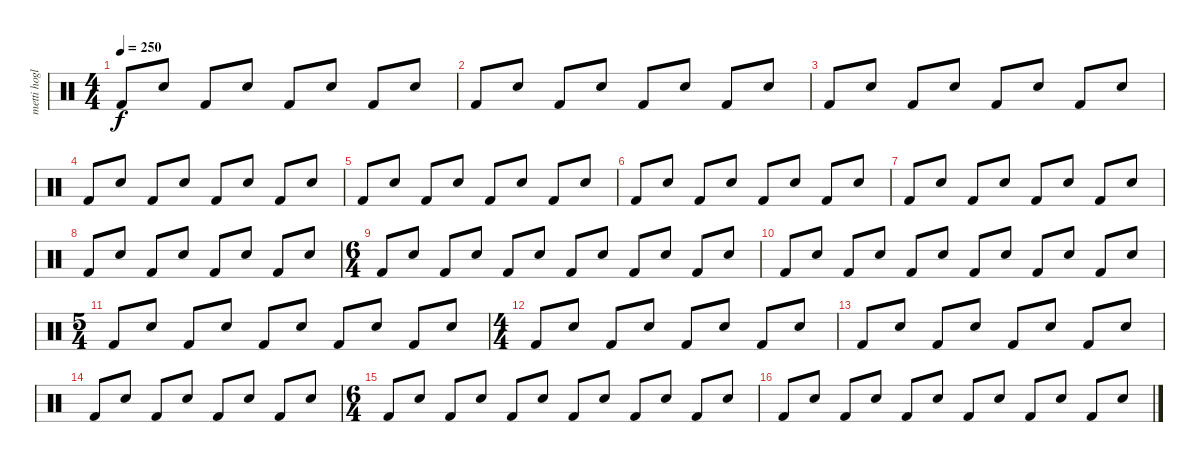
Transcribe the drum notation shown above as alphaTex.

\track ("metti hoglan" "metti hogl") {instrument percussion}
\staff {score}
\articulation defaults
\ts (4 4)
\tempo 250
\clef neutral
\ks c "Kick (hit) 2".8{dy f} "Snare (hit) 2".8 "Kick (hit) 2".8 "Snare (hit) 2".8 "Kick (hit) 2".8 "Snare (hit) 2".8 "Kick (hit) 2".8 "Snare (hit) 2".8
|
"Kick (hit) 2".8 "Snare (hit) 2".8 "Kick (hit) 2".8 "Snare (hit) 2".8 "Kick (hit) 2".8 "Snare (hit) 2".8 "Kick (hit) 2".8 "Snare (hit) 2".8 |
"Kick (hit) 2".8 "Snare (hit) 2".8 "Kick (hit) 2".8 "Snare (hit) 2".8 "Kick (hit) 2".8 "Snare (hit) 2".8 "Kick (hit) 2".8 "Snare (hit) 2".8 |
"Kick (hit) 2".8 "Snare (hit) 2".8 "Kick (hit) 2".8 "Snare (hit) 2".8 "Kick (hit) 2".8 "Snare (hit) 2".8 "Kick (hit) 2".8 "Snare (hit) 2".8 |
"Kick (hit) 2".8 "Snare (hit) 2".8 "Kick (hit) 2".8 "Snare (hit) 2".8 "Kick (hit) 2".8 "Snare (hit) 2".8 "Kick (hit) 2".8 "Snare (hit) 2".8 |
"Kick (hit) 2".8 "Snare (hit) 2".8 "Kick (hit) 2".8 "Snare (hit) 2".8 "Kick (hit) 2".8 "Snare (hit) 2".8 "Kick (hit) 2".8 "Snare (hit) 2".8 |
"Kick (hit) 2".8 "Snare (hit) 2".8 "Kick (hit) 2".8 "Snare (hit) 2".8 "Kick (hit) 2".8 "Snare (hit) 2".8 "Kick (hit) 2".8 "Snare (hit) 2".8 |
"Kick (hit) 2".8 "Snare (hit) 2".8 "Kick (hit) 2".8 "Snare (hit) 2".8 "Kick (hit) 2".8 "Snare (hit) 2".8 "Kick (hit) 2".8 "Snare (hit) 2".8 |
\ts (6 4)
"Kick (hit) 2".8 "Snare (hit) 2".8 "Kick (hit) 2".8 "Snare (hit) 2".8 "Kick (hit) 2".8 "Snare (hit) 2".8 "Kick (hit) 2".8 "Snare (hit) 2".8 "Kick (hit) 2".8 "Snare (hit) 2".8 "Kick (hit) 2".8 "Snare (hit) 2".8 |
"Kick (hit) 2".8 "Snare (hit) 2".8 "Kick (hit) 2".8 "Snare (hit) 2".8 "Kick (hit) 2".8 "Snare (hit) 2".8 "Kick (hit) 2".8 "Snare (hit) 2".8 "Kick (hit) 2".8 "Snare (hit) 2".8 "Kick (hit) 2".8 "Snare (hit) 2".8 |
\ts (5 4)
"Kick (hit) 2".8 "Snare (hit) 2".8 "Kick (hit) 2".8 "Snare (hit) 2".8 "Kick (hit) 2".8 "Snare (hit) 2".8 "Kick (hit) 2".8 "Snare (hit) 2".8 "Kick (hit) 2".8 "Snare (hit) 2".8 |
\ts (4 4)
"Kick (hit) 2".8 "Snare (hit) 2".8 "Kick (hit) 2".8 "Snare (hit) 2".8 "Kick (hit) 2".8 "Snare (hit) 2".8 "Kick (hit) 2".8 "Snare (hit) 2".8 |
"Kick (hit) 2".8 "Snare (hit) 2".8 "Kick (hit) 2".8 "Snare (hit) 2".8 "Kick (hit) 2".8 "Snare (hit) 2".8 "Kick (hit) 2".8 "Snare (hit) 2".8 |
"Kick (hit) 2".8 "Snare (hit) 2".8 "Kick (hit) 2".8 "Snare (hit) 2".8 "Kick (hit) 2".8 "Snare (hit) 2".8 "Kick (hit) 2".8 "Snare (hit) 2".8 |
\ts (6 4)
"Kick (hit) 2".8 "Snare (hit) 2".8 "Kick (hit) 2".8 "Snare (hit) 2".8 "Kick (hit) 2".8 "Snare (hit) 2".8 "Kick (hit) 2".8 "Snare (hit) 2".8 "Kick (hit) 2".8 "Snare (hit) 2".8 "Kick (hit) 2".8 "Snare (hit) 2".8 |
"Kick (hit) 2".8 "Snare (hit) 2".8 "Kick (hit) 2".8 "Snare (hit) 2".8 "Kick (hit) 2".8 "Snare (hit) 2".8 "Kick (hit) 2".8 "Snare (hit) 2".8 "Kick (hit) 2".8 "Snare (hit) 2".8 "Kick (hit) 2".8 "Snare (hit) 2".8
